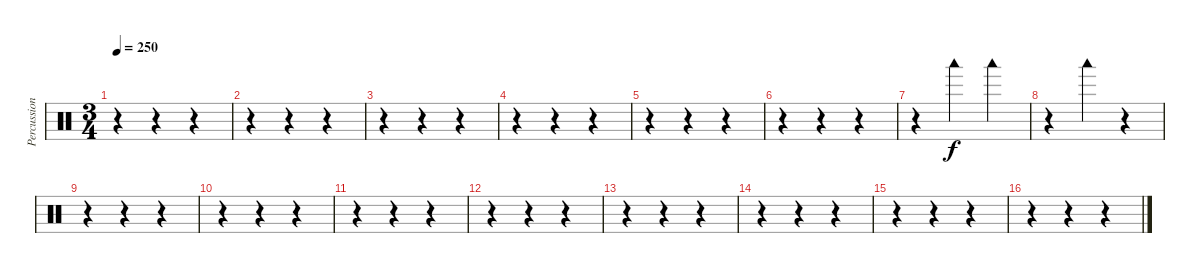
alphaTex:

\track ("Percussions" "Percussion") {instrument percussion}
\staff {score}
\articulation defaults
\ts (3 4)
\tempo 250
\clef neutral
\ks c
r.4{dy f} r.4 r.4 |
r.4 r.4 r.4 |
r.4 r.4 r.4 |
r.4 r.4 r.4 |
r.4 r.4 r.4 |
r.4 r.4 r.4 |
r.4 "Woodblock low (hit)".4 "Woodblock low (hit)".4 |
r.4 "Woodblock low (hit)".4 r.4 |
r.4 r.4 r.4 |
r.4 r.4 r.4 |
r.4 r.4 r.4 |
r.4 r.4 r.4 |
r.4 r.4 r.4 |
r.4 r.4 r.4 |
r.4 r.4 r.4 |
r.4 r.4 r.4
